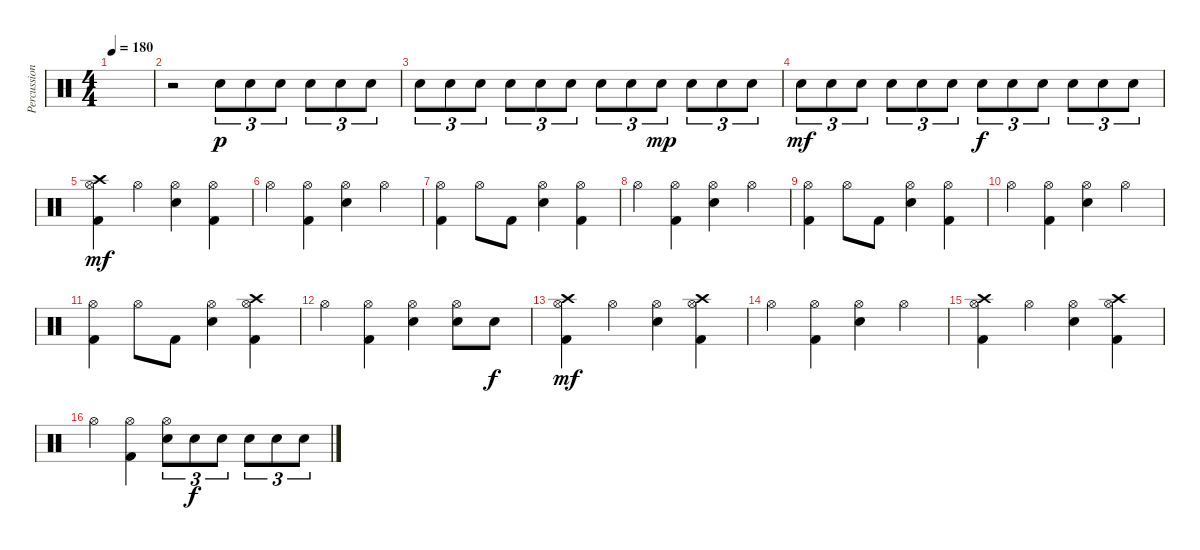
\track ("Percussion" "Percussion") {instrument percussion}
\staff {score}
\articulation defaults
\ts (4 4)
\tempo 180
\clef neutral
\ks c
|
r.2 "Electric Snare (hit)".8{tu (3 2) dy p} "Electric Snare (hit)".8{tu (3 2)} "Electric Snare (hit)".8{tu (3 2)} "Electric Snare (hit)".8{tu (3 2)} "Electric Snare (hit)".8{tu (3 2)} "Electric Snare (hit)".8{tu (3 2)} |
"Electric Snare (hit)".8{tu (3 2)} "Electric Snare (hit)".8{tu (3 2)} "Electric Snare (hit)".8{tu (3 2)} "Electric Snare (hit)".8{tu (3 2)} "Electric Snare (hit)".8{tu (3 2)} "Electric Snare (hit)".8{tu (3 2)} "Electric Snare (hit)".8{tu (3 2)} "Electric Snare (hit)".8{tu (3 2)} "Electric Snare (hit)".8{tu (3 2) dy mp} "Electric Snare (hit)".8{tu (3 2)} "Electric Snare (hit)".8{tu (3 2)} "Electric Snare (hit)".8{tu (3 2)} |
"Electric Snare (hit)".8{tu (3 2) dy mf} "Electric Snare (hit)".8{tu (3 2)} "Electric Snare (hit)".8{tu (3 2)} "Electric Snare (hit)".8{tu (3 2)} "Electric Snare (hit)".8{tu (3 2)} "Electric Snare (hit)".8{tu (3 2)} "Electric Snare (hit)".8{tu (3 2) dy f} "Electric Snare (hit)".8{tu (3 2)} "Electric Snare (hit)".8{tu (3 2)} "Electric Snare (hit)".8{tu (3 2)} "Electric Snare (hit)".8{tu (3 2)} "Electric Snare (hit)".8{tu (3 2)} |
("Crash high (hit)" "Hi-Hat (open)" "Kick (hit) 2").4{dy mf} "Hi-Hat (open)".4 ("Hi-Hat (open)" "Electric Snare (hit)").4 ("Hi-Hat (open)" "Kick (hit) 2").4 |
"Hi-Hat (open)".4 ("Hi-Hat (open)" "Kick (hit) 2").4 ("Hi-Hat (open)" "Electric Snare (hit)").4 "Hi-Hat (open)".4 |
("Hi-Hat (open)" "Kick (hit) 2").4 "Hi-Hat (open)".8 "Kick (hit) 2".8 ("Hi-Hat (open)" "Electric Snare (hit)").4 ("Hi-Hat (open)" "Kick (hit) 2").4 |
"Hi-Hat (open)".4 ("Hi-Hat (open)" "Kick (hit) 2").4 ("Hi-Hat (open)" "Electric Snare (hit)").4 "Hi-Hat (open)".4 |
("Hi-Hat (open)" "Kick (hit) 2").4 "Hi-Hat (open)".8 "Kick (hit) 2".8 ("Hi-Hat (open)" "Electric Snare (hit)").4 ("Hi-Hat (open)" "Kick (hit) 2").4 |
"Hi-Hat (open)".4 ("Hi-Hat (open)" "Kick (hit) 2").4 ("Hi-Hat (open)" "Electric Snare (hit)").4 "Hi-Hat (open)".4 |
("Hi-Hat (open)" "Kick (hit) 2").4 "Hi-Hat (open)".8 "Kick (hit) 2".8 ("Hi-Hat (open)" "Electric Snare (hit)").4 ("Crash high (hit)" "Hi-Hat (open)" "Kick (hit) 2").4 |
"Hi-Hat (open)".4 ("Hi-Hat (open)" "Kick (hit) 2").4 ("Hi-Hat (open)" "Electric Snare (hit)").4 ("Hi-Hat (open)" "Electric Snare (hit)").8 "Electric Snare (hit)".8{dy f} |
("Crash high (hit)" "Hi-Hat (open)" "Kick (hit) 2").4{dy mf} "Hi-Hat (open)".4 ("Hi-Hat (open)" "Electric Snare (hit)").4 ("Crash high (hit)" "Hi-Hat (open)" "Kick (hit) 2").4 |
"Hi-Hat (open)".4 ("Hi-Hat (open)" "Kick (hit) 2").4 ("Hi-Hat (open)" "Electric Snare (hit)").4 "Hi-Hat (open)".4 |
("Crash high (hit)" "Hi-Hat (open)" "Kick (hit) 2").4 "Hi-Hat (open)".4 ("Hi-Hat (open)" "Electric Snare (hit)").4 ("Crash high (hit)" "Hi-Hat (open)" "Kick (hit) 2").4 |
"Hi-Hat (open)".4 ("Hi-Hat (open)" "Kick (hit) 2").4 ("Hi-Hat (open)" "Electric Snare (hit)").8{tu (3 2)} "Electric Snare (hit)".8{tu (3 2) dy f} "Electric Snare (hit)".8{tu (3 2)} "Electric Snare (hit)".8{tu (3 2)} "Electric Snare (hit)".8{tu (3 2)} "Electric Snare (hit)".8{tu (3 2)}
